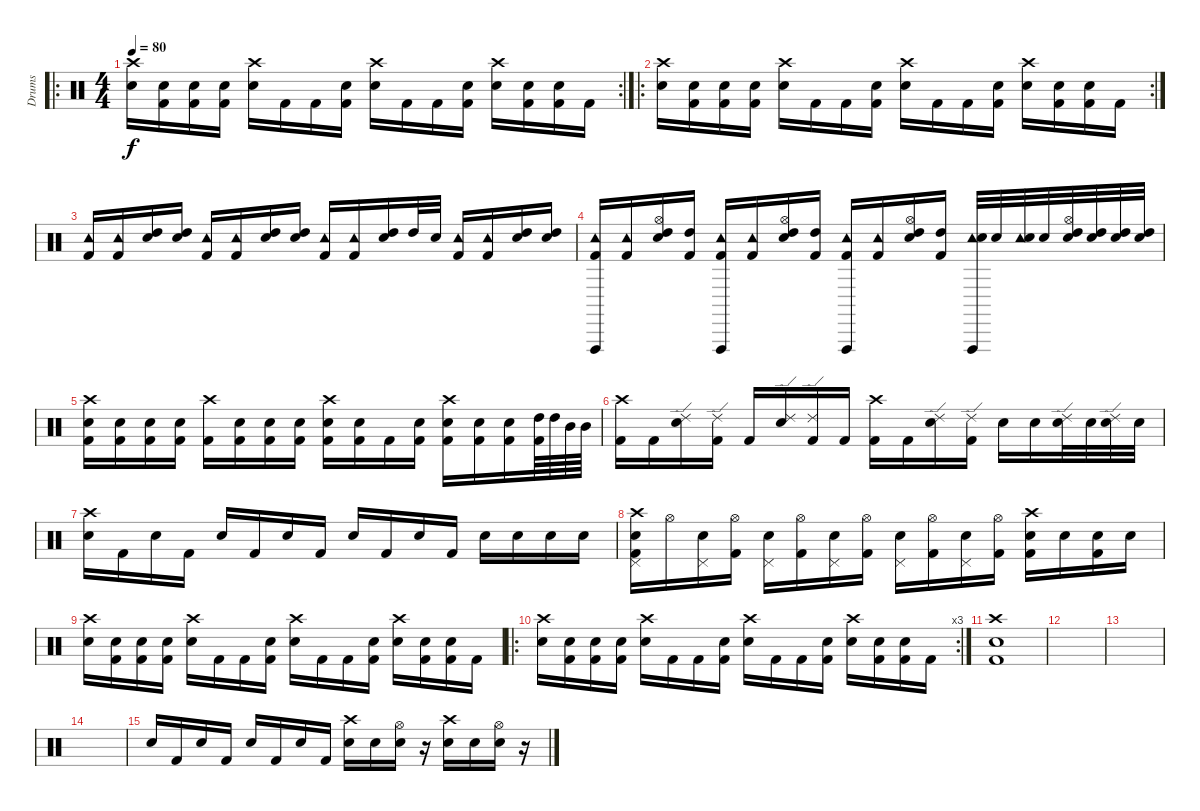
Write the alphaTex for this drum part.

\track ("Drums" "Drums") {instrument percussion}
\staff {score}
\articulation defaults
\ro
\rc 2
\ts (4 4)
\tempo 80
\clef neutral
\ks c
("Crash high (hit)" "Electric Snare (hit)").16{dy f} ("Electric Snare (hit)" "Kick (hit) 2").16 ("Electric Snare (hit)" "Kick (hit) 2").16 ("Electric Snare (hit)" "Kick (hit) 2").16 ("Crash high (hit)" "Electric Snare (hit)").16 "Kick (hit) 2".16 "Kick (hit) 2".16 ("Electric Snare (hit)" "Kick (hit) 2").16 ("Crash high (hit)" "Electric Snare (hit)").16 "Kick (hit) 2".16 "Kick (hit) 2".16 ("Electric Snare (hit)" "Kick (hit) 2").16 ("Crash high (hit)" "Electric Snare (hit)").16 ("Electric Snare (hit)" "Kick (hit) 2").16 ("Electric Snare (hit)" "Kick (hit) 2").16 "Kick (hit) 2".16 |
\ro
\rc 2
("Crash high (hit)" "Electric Snare (hit)").16 ("Electric Snare (hit)" "Kick (hit) 2").16 ("Electric Snare (hit)" "Kick (hit) 2").16 ("Electric Snare (hit)" "Kick (hit) 2").16 ("Crash high (hit)" "Electric Snare (hit)").16 "Kick (hit) 2".16 "Kick (hit) 2".16 ("Electric Snare (hit)" "Kick (hit) 2").16 ("Crash high (hit)" "Electric Snare (hit)").16 "Kick (hit) 2".16 "Kick (hit) 2".16 ("Electric Snare (hit)" "Kick (hit) 2").16 ("Crash high (hit)" "Electric Snare (hit)").16 ("Electric Snare (hit)" "Kick (hit) 2").16 ("Electric Snare (hit)" "Kick (hit) 2").16 "Kick (hit) 2".16 |
("Tambourine (hit)" "Kick (hit) 2").16 ("Tambourine (hit)" "Kick (hit) 2").16 ("High Tom (hit)" "Electric Snare (hit)").16 ("High Tom (hit)" "Electric Snare (hit)").16 ("Tambourine (hit)" "Kick (hit) 2").16 ("Tambourine (hit)" "Kick (hit) 2").16 ("High Tom (hit)" "Electric Snare (hit)").16 ("High Tom (hit)" "Electric Snare (hit)").16 ("Tambourine (hit)" "Kick (hit) 2").16 ("Tambourine (hit)" "Kick (hit) 2").16 ("High Tom (hit)" "Electric Snare (hit)").16 "High Tom (hit)".32 "Electric Snare (hit)".32 ("Tambourine (hit)" "Kick (hit) 2").16 ("Tambourine (hit)" "Kick (hit) 2").16 ("High Tom (hit)" "Electric Snare (hit)").16 ("High Tom (hit)" "Electric Snare (hit)").16 |
("Tambourine (hit)" "Vibraslap (hit)" "Kick (hit) 2").16 ("Tambourine (hit)" "Kick (hit) 2").16 ("Hi-Hat (open)" "Electric Snare (hit)" "High Tom (hit)").16 ("High Tom (hit)" "Kick (hit) 2").16 ("Tambourine (hit)" "Vibraslap (hit)" "Kick (hit) 2").16 ("Tambourine (hit)" "Kick (hit) 2").16 ("Hi-Hat (open)" "Electric Snare (hit)" "High Tom (hit)").16 ("High Tom (hit)" "Kick (hit) 2").16 ("Tambourine (hit)" "Vibraslap (hit)" "Kick (hit) 2").16 ("Tambourine (hit)" "Kick (hit) 2").16 ("Hi-Hat (open)" "Electric Snare (hit)" "High Tom (hit)").16 ("High Tom (hit)" "Kick (hit) 2").16 ("Tambourine (hit)" "Electric Snare (hit)" "Vibraslap (hit)").32 "Electric Snare (hit)".32 ("Tambourine (hit)" "Electric Snare (hit)").32 "Electric Snare (hit)".32 ("Hi-Hat (open)" "Electric Snare (hit)" "High Tom (hit)").32 ("Electric Snare (hit)" "High Tom (hit)").32 ("Electric Snare (hit)" "High Tom (hit)").32 ("Electric Snare (hit)" "High Tom (hit)").32 |
("Crash high (hit)" "Electric Snare (hit)" "Kick (hit) 2").16 ("Electric Snare (hit)" "Kick (hit) 2").16 ("Electric Snare (hit)" "Kick (hit) 2").16 ("Electric Snare (hit)" "Kick (hit) 2").16 ("Crash high (hit)" "Kick (hit) 2").16 ("Electric Snare (hit)" "Kick (hit) 2").16 ("Electric Snare (hit)" "Kick (hit) 2").16 ("Electric Snare (hit)" "Kick (hit) 2").16 ("Crash high (hit)" "Electric Snare (hit)" "Kick (hit) 2").16 ("Electric Snare (hit)" "Kick (hit) 2").16 "Kick (hit) 2".16 ("Electric Snare (hit)" "Kick (hit) 2").16 ("Crash high (hit)" "Electric Snare (hit)" "Kick (hit) 2").16 ("Electric Snare (hit)" "Kick (hit) 2").16 ("Electric Snare (hit)" "Kick (hit) 2").16 ("High Tom (hit)" "Kick (hit) 2").64 "High Tom (hit)".64 "Mid Tom (hit)".64 "Mid Tom (hit)".64 |
("Crash high (hit)" "Kick (hit) 2").16 "Kick (hit) 2".16 ("Ride (edge) 2" "Electric Snare (hit)").16 ("Ride (edge) 2" "Kick (hit) 2").16 "Kick (hit) 2".16 ("Ride (edge) 2" "Electric Snare (hit)").16 ("Ride (edge) 2" "Kick (hit) 2").16 "Kick (hit) 2".16 ("Crash high (hit)" "Kick (hit) 2").16 "Kick (hit) 2".16 ("Ride (edge) 2" "Electric Snare (hit)").16 ("Ride (edge) 2" "Kick (hit) 2").16 "Electric Snare (hit)".16 "Electric Snare (hit)".16 ("Ride (edge) 2" "Electric Snare (hit)").32 "Electric Snare (hit)".32 ("Ride (edge) 2" "Electric Snare (hit)").32 "Electric Snare (hit)".32 |
("Crash high (hit)" "Electric Snare (hit)").16 "Kick (hit) 2".16 "Electric Snare (hit)".16 "Kick (hit) 2".16 "Electric Snare (hit)".16 "Kick (hit) 2".16 "Electric Snare (hit)".16 "Kick (hit) 2".16 "Electric Snare (hit)".16 "Kick (hit) 2".16 "Electric Snare (hit)".16 "Kick (hit) 2".16 "Electric Snare (hit)".16 "Electric Snare (hit)".16 "Electric Snare (hit)".16 "Electric Snare (hit)".16 |
("Crash high (hit)" "Pedal Hi-Hat (hit)" "Electric Snare (hit)" "Kick (hit) 2").16 "Hi-Hat (open)".16 ("Pedal Hi-Hat (hit)" "Electric Snare (hit)").16 ("Hi-Hat (open)" "Kick (hit) 2").16 ("Pedal Hi-Hat (hit)" "Electric Snare (hit)").16 ("Hi-Hat (open)" "Kick (hit) 2").16 ("Pedal Hi-Hat (hit)" "Electric Snare (hit)").16 ("Hi-Hat (open)" "Kick (hit) 2").16 ("Pedal Hi-Hat (hit)" "Electric Snare (hit)").16 ("Hi-Hat (open)" "Kick (hit) 2").16 ("Pedal Hi-Hat (hit)" "Electric Snare (hit)").16 ("Hi-Hat (open)" "Kick (hit) 2").16 ("Crash high (hit)" "Electric Snare (hit)" "Kick (hit) 2").16 "Electric Snare (hit)".16 ("Electric Snare (hit)" "Kick (hit) 2").16 "Electric Snare (hit)".16 |
("Crash high (hit)" "Electric Snare (hit)").16 ("Electric Snare (hit)" "Kick (hit) 2").16 ("Electric Snare (hit)" "Kick (hit) 2").16 ("Electric Snare (hit)" "Kick (hit) 2").16 ("Crash high (hit)" "Electric Snare (hit)").16 "Kick (hit) 2".16 "Kick (hit) 2".16 ("Electric Snare (hit)" "Kick (hit) 2").16 ("Crash high (hit)" "Electric Snare (hit)").16 "Kick (hit) 2".16 "Kick (hit) 2".16 ("Electric Snare (hit)" "Kick (hit) 2").16 ("Crash high (hit)" "Electric Snare (hit)").16 ("Electric Snare (hit)" "Kick (hit) 2").16 ("Electric Snare (hit)" "Kick (hit) 2").16 "Kick (hit) 2".16 |
\ro
\rc 3
("Crash high (hit)" "Electric Snare (hit)").16 ("Electric Snare (hit)" "Kick (hit) 2").16 ("Electric Snare (hit)" "Kick (hit) 2").16 ("Electric Snare (hit)" "Kick (hit) 2").16 ("Crash high (hit)" "Electric Snare (hit)").16 "Kick (hit) 2".16 "Kick (hit) 2".16 ("Electric Snare (hit)" "Kick (hit) 2").16 ("Crash high (hit)" "Electric Snare (hit)").16 "Kick (hit) 2".16 "Kick (hit) 2".16 ("Electric Snare (hit)" "Kick (hit) 2").16 ("Crash high (hit)" "Electric Snare (hit)").16 ("Electric Snare (hit)" "Kick (hit) 2").16 ("Electric Snare (hit)" "Kick (hit) 2").16 "Kick (hit) 2".16 |
("Crash high (hit)" "Electric Snare (hit)" "Kick (hit) 2").1 |
|
|
|
"Electric Snare (hit)".16 "Kick (hit) 2".16 "Electric Snare (hit)".16 "Kick (hit) 2".16 "Electric Snare (hit)".16 "Kick (hit) 2".16 "Electric Snare (hit)".16 "Kick (hit) 2".16 ("Crash high (hit)" "Electric Snare (hit)").16 "Electric Snare (hit)".16 ("Hi-Hat (open)" "Electric Snare (hit)").16 r.16 ("Crash high (hit)" "Electric Snare (hit)").16 "Electric Snare (hit)".16 ("Hi-Hat (open)" "Electric Snare (hit)").16 r.16
